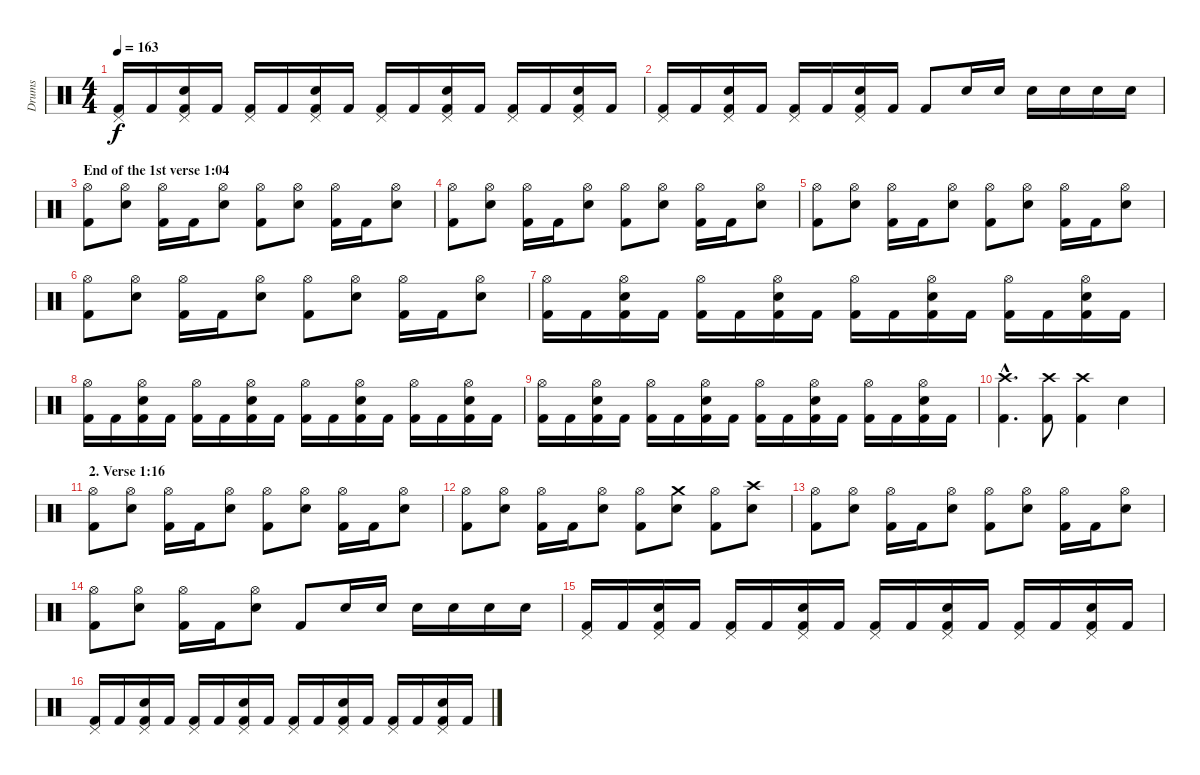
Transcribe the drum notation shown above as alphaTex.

\track ("Drums" "Drums") {instrument percussion}
\staff {score}
\articulation defaults
\ts (4 4)
\tempo 163
\clef neutral
\ks c
("Pedal Hi-Hat (hit)" "Kick (hit) 2").16{dy f} "Kick (hit) 2".16 ("Pedal Hi-Hat (hit)" "Kick (hit) 2" "Snare (hit) 2").16 "Kick (hit) 2".16 ("Pedal Hi-Hat (hit)" "Kick (hit) 2").16 "Kick (hit) 2".16 ("Pedal Hi-Hat (hit)" "Kick (hit) 2" "Snare (hit) 2").16 "Kick (hit) 2".16 ("Pedal Hi-Hat (hit)" "Kick (hit) 2").16 "Kick (hit) 2".16 ("Pedal Hi-Hat (hit)" "Kick (hit) 2" "Snare (hit) 2").16 "Kick (hit) 2".16 ("Pedal Hi-Hat (hit)" "Kick (hit) 2").16 "Kick (hit) 2".16 ("Pedal Hi-Hat (hit)" "Kick (hit) 2" "Snare (hit) 2").16 "Kick (hit) 2".16 |
("Pedal Hi-Hat (hit)" "Kick (hit) 2").16 "Kick (hit) 2".16 ("Pedal Hi-Hat (hit)" "Kick (hit) 2" "Snare (hit) 2").16 "Kick (hit) 2".16 ("Pedal Hi-Hat (hit)" "Kick (hit) 2").16 "Kick (hit) 2".16 ("Pedal Hi-Hat (hit)" "Kick (hit) 2" "Snare (hit) 2").16 "Kick (hit) 2".16 "Kick (hit) 2".8 "Snare (hit) 2".16 "Snare (hit) 2".16 "Snare (hit) 2".16 "Snare (hit) 2".16 "Snare (hit) 2".16 "Snare (hit) 2".16 |
\section ("" "End of the 1st verse 1:04")
("Hi-Hat (open)" "Kick (hit) 2").8 ("Hi-Hat (open)" "Snare (hit) 2").8 ("Hi-Hat (open)" "Kick (hit) 2").16 "Kick (hit) 2".16 ("Hi-Hat (open)" "Snare (hit) 2").8 ("Hi-Hat (open)" "Kick (hit) 2").8 ("Hi-Hat (open)" "Snare (hit) 2").8 ("Hi-Hat (open)" "Kick (hit) 2").16 "Kick (hit) 2".16 ("Hi-Hat (open)" "Snare (hit) 2").8 |
("Hi-Hat (open)" "Kick (hit) 2").8 ("Hi-Hat (open)" "Snare (hit) 2").8 ("Hi-Hat (open)" "Kick (hit) 2").16 "Kick (hit) 2".16 ("Hi-Hat (open)" "Snare (hit) 2").8 ("Hi-Hat (open)" "Kick (hit) 2").8 ("Hi-Hat (open)" "Snare (hit) 2").8 ("Hi-Hat (open)" "Kick (hit) 2").16 "Kick (hit) 2".16 ("Hi-Hat (open)" "Snare (hit) 2").8 |
("Hi-Hat (open)" "Kick (hit) 2").8 ("Hi-Hat (open)" "Snare (hit) 2").8 ("Hi-Hat (open)" "Kick (hit) 2").16 "Kick (hit) 2".16 ("Hi-Hat (open)" "Snare (hit) 2").8 ("Hi-Hat (open)" "Kick (hit) 2").8 ("Hi-Hat (open)" "Snare (hit) 2").8 ("Hi-Hat (open)" "Kick (hit) 2").16 "Kick (hit) 2".16 ("Hi-Hat (open)" "Snare (hit) 2").8 |
("Hi-Hat (open)" "Kick (hit) 2").8 ("Hi-Hat (open)" "Snare (hit) 2").8 ("Hi-Hat (open)" "Kick (hit) 2").16 "Kick (hit) 2".16 ("Hi-Hat (open)" "Snare (hit) 2").8 ("Hi-Hat (open)" "Kick (hit) 2").8 ("Hi-Hat (open)" "Snare (hit) 2").8 ("Hi-Hat (open)" "Kick (hit) 2").16 "Kick (hit) 2".16 ("Hi-Hat (open)" "Snare (hit) 2").8 |
("Hi-Hat (open)" "Kick (hit) 2").16 "Kick (hit) 2".16 ("Hi-Hat (open)" "Kick (hit) 2" "Snare (hit) 2").16 "Kick (hit) 2".16 ("Hi-Hat (open)" "Kick (hit) 2").16 "Kick (hit) 2".16 ("Hi-Hat (open)" "Kick (hit) 2" "Snare (hit) 2").16 "Kick (hit) 2".16 ("Hi-Hat (open)" "Kick (hit) 2").16 "Kick (hit) 2".16 ("Hi-Hat (open)" "Kick (hit) 2" "Snare (hit) 2").16 "Kick (hit) 2".16 ("Hi-Hat (open)" "Kick (hit) 2").16 "Kick (hit) 2".16 ("Hi-Hat (open)" "Kick (hit) 2" "Snare (hit) 2").16 "Kick (hit) 2".16 |
("Hi-Hat (open)" "Kick (hit) 2").16 "Kick (hit) 2".16 ("Hi-Hat (open)" "Kick (hit) 2" "Snare (hit) 2").16 "Kick (hit) 2".16 ("Hi-Hat (open)" "Kick (hit) 2").16 "Kick (hit) 2".16 ("Hi-Hat (open)" "Kick (hit) 2" "Snare (hit) 2").16 "Kick (hit) 2".16 ("Hi-Hat (open)" "Kick (hit) 2").16 "Kick (hit) 2".16 ("Hi-Hat (open)" "Kick (hit) 2" "Snare (hit) 2").16 "Kick (hit) 2".16 ("Hi-Hat (open)" "Kick (hit) 2").16 "Kick (hit) 2".16 ("Hi-Hat (open)" "Kick (hit) 2" "Snare (hit) 2").16 "Kick (hit) 2".16 |
("Hi-Hat (open)" "Kick (hit) 2").16 "Kick (hit) 2".16 ("Hi-Hat (open)" "Kick (hit) 2" "Snare (hit) 2").16 "Kick (hit) 2".16 ("Hi-Hat (open)" "Kick (hit) 2").16 "Kick (hit) 2".16 ("Hi-Hat (open)" "Kick (hit) 2" "Snare (hit) 2").16 "Kick (hit) 2".16 ("Hi-Hat (open)" "Kick (hit) 2").16 "Kick (hit) 2".16 ("Hi-Hat (open)" "Kick (hit) 2" "Snare (hit) 2").16 "Kick (hit) 2".16 ("Hi-Hat (open)" "Kick (hit) 2").16 "Kick (hit) 2".16 ("Hi-Hat (open)" "Kick (hit) 2" "Snare (hit) 2").16 "Kick (hit) 2".16 |
("Kick (hit) 2"{hac} "Crash high (hit)"{hac}).4{d} ("Kick (hit) 2" "Crash high (hit)").8 ("Kick (hit) 2" "Crash high (hit)").4 "Snare (hit) 2".4 |
\section ("" "2. Verse 1:16")
("Hi-Hat (open)" "Kick (hit) 2").8 ("Hi-Hat (open)" "Snare (hit) 2").8 ("Hi-Hat (open)" "Kick (hit) 2").16 "Kick (hit) 2".16 ("Hi-Hat (open)" "Snare (hit) 2").8 ("Hi-Hat (open)" "Kick (hit) 2").8 ("Hi-Hat (open)" "Snare (hit) 2").8 ("Hi-Hat (open)" "Kick (hit) 2").16 "Kick (hit) 2".16 ("Hi-Hat (open)" "Snare (hit) 2").8 |
("Hi-Hat (open)" "Kick (hit) 2").8 ("Hi-Hat (open)" "Snare (hit) 2").8 ("Hi-Hat (open)" "Kick (hit) 2").16 "Kick (hit) 2".16 ("Hi-Hat (open)" "Snare (hit) 2").8 ("Hi-Hat (open)" "Kick (hit) 2").8 ("Crash medium (hit)" "Snare (hit) 2").8 ("Hi-Hat (open)" "Kick (hit) 2").8 ("Crash high (hit)" "Snare (hit) 2").8 |
("Hi-Hat (open)" "Kick (hit) 2").8 ("Hi-Hat (open)" "Snare (hit) 2").8 ("Hi-Hat (open)" "Kick (hit) 2").16 "Kick (hit) 2".16 ("Hi-Hat (open)" "Snare (hit) 2").8 ("Hi-Hat (open)" "Kick (hit) 2").8 ("Hi-Hat (open)" "Snare (hit) 2").8 ("Hi-Hat (open)" "Kick (hit) 2").16 "Kick (hit) 2".16 ("Hi-Hat (open)" "Snare (hit) 2").8 |
("Hi-Hat (open)" "Kick (hit) 2").8 ("Hi-Hat (open)" "Snare (hit) 2").8 ("Hi-Hat (open)" "Kick (hit) 2").16 "Kick (hit) 2".16 ("Hi-Hat (open)" "Snare (hit) 2").8 "Kick (hit) 2".8 "Snare (hit) 2".16 "Snare (hit) 2".16 "Snare (hit) 2".16 "Snare (hit) 2".16 "Snare (hit) 2".16 "Snare (hit) 2".16 |
("Pedal Hi-Hat (hit)" "Kick (hit) 2").16 "Kick (hit) 2".16 ("Pedal Hi-Hat (hit)" "Kick (hit) 2" "Snare (hit) 2").16 "Kick (hit) 2".16 ("Pedal Hi-Hat (hit)" "Kick (hit) 2").16 "Kick (hit) 2".16 ("Pedal Hi-Hat (hit)" "Kick (hit) 2" "Snare (hit) 2").16 "Kick (hit) 2".16 ("Pedal Hi-Hat (hit)" "Kick (hit) 2").16 "Kick (hit) 2".16 ("Pedal Hi-Hat (hit)" "Kick (hit) 2" "Snare (hit) 2").16 "Kick (hit) 2".16 ("Pedal Hi-Hat (hit)" "Kick (hit) 2").16 "Kick (hit) 2".16 ("Pedal Hi-Hat (hit)" "Kick (hit) 2" "Snare (hit) 2").16 "Kick (hit) 2".16 |
("Pedal Hi-Hat (hit)" "Kick (hit) 2").16 "Kick (hit) 2".16 ("Pedal Hi-Hat (hit)" "Kick (hit) 2" "Snare (hit) 2").16 "Kick (hit) 2".16 ("Pedal Hi-Hat (hit)" "Kick (hit) 2").16 "Kick (hit) 2".16 ("Pedal Hi-Hat (hit)" "Kick (hit) 2" "Snare (hit) 2").16 "Kick (hit) 2".16 ("Pedal Hi-Hat (hit)" "Kick (hit) 2").16 "Kick (hit) 2".16 ("Pedal Hi-Hat (hit)" "Kick (hit) 2" "Snare (hit) 2").16 "Kick (hit) 2".16 ("Pedal Hi-Hat (hit)" "Kick (hit) 2").16 "Kick (hit) 2".16 ("Pedal Hi-Hat (hit)" "Kick (hit) 2" "Snare (hit) 2").16 "Kick (hit) 2".16
